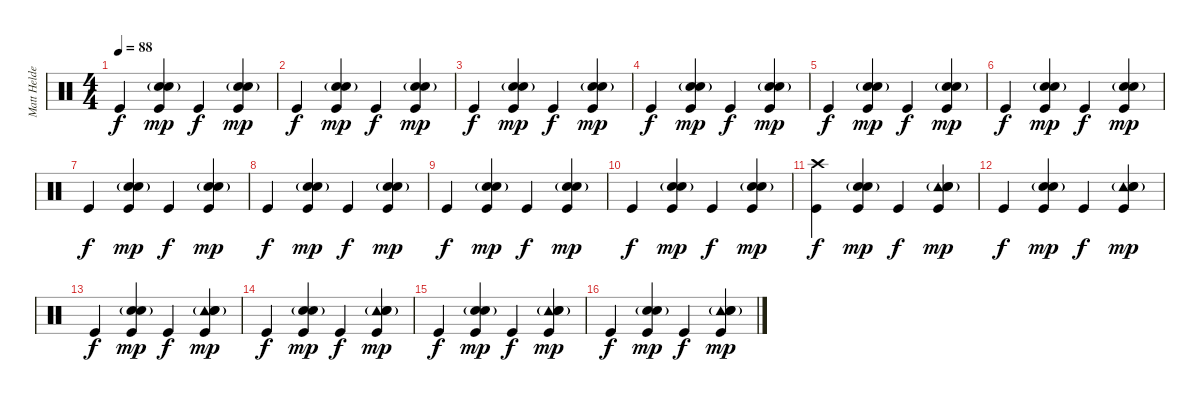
\track ("Matt Helders" "Matt Helde") {instrument percussion}
\staff {score}
\articulation defaults
\ts (4 4)
\tempo 88
\clef neutral
\ks c "Kick (hit)".4{dy f}
("Hand Clap (hit)" "Snare (hit) 2"{g} "Kick (hit)").4{dy mp} "Kick (hit)".4{dy f} ("Hand Clap (hit)" "Snare (hit) 2"{g} "Kick (hit)").4{dy mp} |
"Kick (hit)".4{dy f} ("Hand Clap (hit)" "Snare (hit) 2"{g} "Kick (hit)").4{dy mp} "Kick (hit)".4{dy f} ("Hand Clap (hit)" "Snare (hit) 2"{g} "Kick (hit)").4{dy mp} |
"Kick (hit)".4{dy f} ("Hand Clap (hit)" "Snare (hit) 2"{g} "Kick (hit)").4{dy mp} "Kick (hit)".4{dy f} ("Hand Clap (hit)" "Snare (hit) 2"{g} "Kick (hit)").4{dy mp} |
"Kick (hit)".4{dy f} ("Hand Clap (hit)" "Snare (hit) 2"{g} "Kick (hit)").4{dy mp} "Kick (hit)".4{dy f} ("Hand Clap (hit)" "Snare (hit) 2"{g} "Kick (hit)").4{dy mp} |
"Kick (hit)".4{dy f} ("Hand Clap (hit)" "Snare (hit) 2"{g} "Kick (hit)").4{dy mp} "Kick (hit)".4{dy f} ("Hand Clap (hit)" "Snare (hit) 2"{g} "Kick (hit)").4{dy mp} |
"Kick (hit)".4{dy f} ("Hand Clap (hit)" "Snare (hit) 2"{g} "Kick (hit)").4{dy mp} "Kick (hit)".4{dy f} ("Hand Clap (hit)" "Snare (hit) 2"{g} "Kick (hit)").4{dy mp} |
"Kick (hit)".4{dy f} ("Hand Clap (hit)" "Snare (hit) 2"{g} "Kick (hit)").4{dy mp} "Kick (hit)".4{dy f} ("Hand Clap (hit)" "Snare (hit) 2"{g} "Kick (hit)").4{dy mp} |
"Kick (hit)".4{dy f} ("Hand Clap (hit)" "Snare (hit) 2"{g} "Kick (hit)").4{dy mp} "Kick (hit)".4{dy f} ("Hand Clap (hit)" "Snare (hit) 2"{g} "Kick (hit)").4{dy mp} |
"Kick (hit)".4{dy f} ("Hand Clap (hit)" "Snare (hit) 2"{g} "Kick (hit)").4{dy mp} "Kick (hit)".4{dy f} ("Hand Clap (hit)" "Snare (hit) 2"{g} "Kick (hit)").4{dy mp} |
"Kick (hit)".4{dy f} ("Hand Clap (hit)" "Snare (hit) 2"{g} "Kick (hit)").4{dy mp} "Kick (hit)".4{dy f} ("Hand Clap (hit)" "Snare (hit) 2"{g} "Kick (hit)").4{dy mp} |
("Crash high (hit)" "Kick (hit)").4{dy f} ("Hand Clap (hit)" "Snare (hit) 2"{g} "Kick (hit)").4{dy mp} "Kick (hit)".4{dy f} ("Tambourine (hit)" "Hand Clap (hit)" "Snare (hit) 2"{g} "Kick (hit)").4{dy mp} |
"Kick (hit)".4{dy f} ("Hand Clap (hit)" "Snare (hit) 2"{g} "Kick (hit)").4{dy mp} "Kick (hit)".4{dy f} ("Tambourine (hit)" "Hand Clap (hit)" "Snare (hit) 2"{g} "Kick (hit)").4{dy mp} |
"Kick (hit)".4{dy f} ("Hand Clap (hit)" "Snare (hit) 2"{g} "Kick (hit)").4{dy mp} "Kick (hit)".4{dy f} ("Tambourine (hit)" "Hand Clap (hit)" "Snare (hit) 2"{g} "Kick (hit)").4{dy mp} |
"Kick (hit)".4{dy f} ("Hand Clap (hit)" "Snare (hit) 2"{g} "Kick (hit)").4{dy mp} "Kick (hit)".4{dy f} ("Tambourine (hit)" "Hand Clap (hit)" "Snare (hit) 2"{g} "Kick (hit)").4{dy mp} |
"Kick (hit)".4{dy f} ("Hand Clap (hit)" "Snare (hit) 2"{g} "Kick (hit)").4{dy mp} "Kick (hit)".4{dy f} ("Tambourine (hit)" "Hand Clap (hit)" "Snare (hit) 2"{g} "Kick (hit)").4{dy mp} |
"Kick (hit)".4{dy f} ("Hand Clap (hit)" "Snare (hit) 2"{g} "Kick (hit)").4{dy mp} "Kick (hit)".4{dy f} ("Tambourine (hit)" "Hand Clap (hit)" "Snare (hit) 2"{g} "Kick (hit)").4{dy mp}
